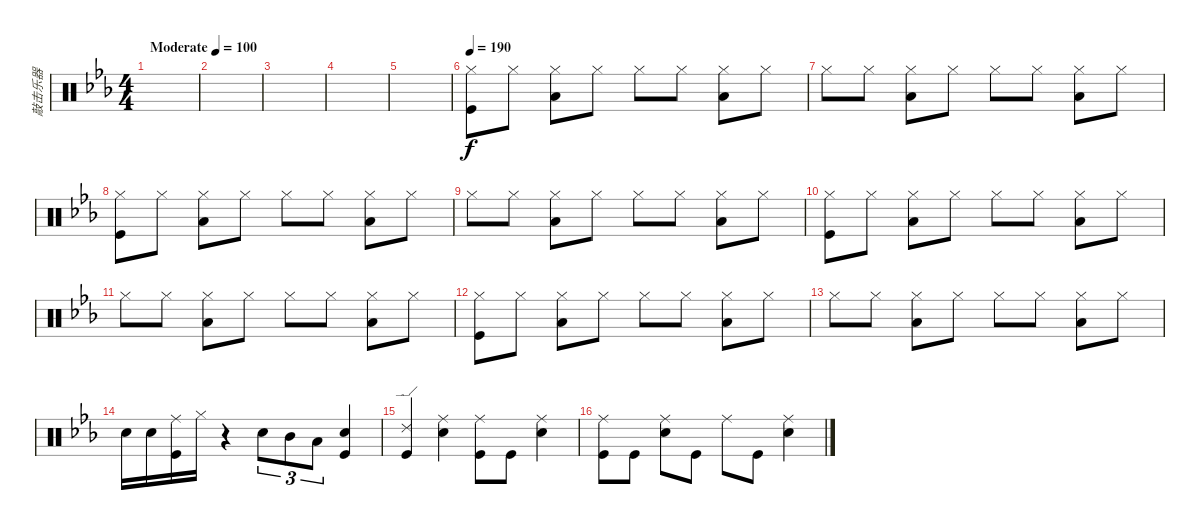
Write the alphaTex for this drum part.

\track ("敲击乐器" "敲击乐器") {instrument percussion}
\staff {score}
\articulation defaults
\ts (4 4)
\tempo (100 "Moderate")
\clef neutral
\ks eb
|
|
|
|
|
\tempo 190
("Hi-Hat (closed)" "Kick (hit)").8 "Hi-Hat (closed)".8 ("Hi-Hat (closed)" "Low Tom (hit)").8 "Hi-Hat (closed)".8 "Hi-Hat (closed)".8 "Hi-Hat (closed)".8 ("Hi-Hat (closed)" "Low Tom (hit)").8 "Hi-Hat (closed)".8 |
"Hi-Hat (closed)".8 "Hi-Hat (closed)".8 ("Hi-Hat (closed)" "Low Tom (hit)").8 "Hi-Hat (closed)".8 "Hi-Hat (closed)".8 "Hi-Hat (closed)".8 ("Hi-Hat (closed)" "Low Tom (hit)").8 "Hi-Hat (closed)".8 |
("Hi-Hat (closed)" "Kick (hit)").8 "Hi-Hat (closed)".8 ("Hi-Hat (closed)" "Low Tom (hit)").8 "Hi-Hat (closed)".8 "Hi-Hat (closed)".8 "Hi-Hat (closed)".8 ("Hi-Hat (closed)" "Low Tom (hit)").8 "Hi-Hat (closed)".8 |
"Hi-Hat (closed)".8 "Hi-Hat (closed)".8 ("Hi-Hat (closed)" "Low Tom (hit)").8 "Hi-Hat (closed)".8 "Hi-Hat (closed)".8 "Hi-Hat (closed)".8 ("Hi-Hat (closed)" "Low Tom (hit)").8 "Hi-Hat (closed)".8 |
("Hi-Hat (closed)" "Kick (hit)").8 "Hi-Hat (closed)".8 ("Hi-Hat (closed)" "Low Tom (hit)").8 "Hi-Hat (closed)".8 "Hi-Hat (closed)".8 "Hi-Hat (closed)".8 ("Hi-Hat (closed)" "Low Tom (hit)").8 "Hi-Hat (closed)".8 |
"Hi-Hat (closed)".8 "Hi-Hat (closed)".8 ("Hi-Hat (closed)" "Low Tom (hit)").8 "Hi-Hat (closed)".8 "Hi-Hat (closed)".8 "Hi-Hat (closed)".8 ("Hi-Hat (closed)" "Low Tom (hit)").8 "Hi-Hat (closed)".8 |
("Hi-Hat (closed)" "Kick (hit)").8 "Hi-Hat (closed)".8 ("Hi-Hat (closed)" "Low Tom (hit)").8 "Hi-Hat (closed)".8 "Hi-Hat (closed)".8 "Hi-Hat (closed)".8 ("Hi-Hat (closed)" "Low Tom (hit)").8 "Hi-Hat (closed)".8 |
"Hi-Hat (closed)".8 "Hi-Hat (closed)".8 ("Hi-Hat (closed)" "Low Tom (hit)").8 "Hi-Hat (closed)".8 "Hi-Hat (closed)".8 "Hi-Hat (closed)".8 ("Hi-Hat (closed)" "Low Tom (hit)").8 "Hi-Hat (closed)".8 |
"Snare (hit) 2".16 "Snare (hit) 2".16 ("Ride (middle)" "Kick (hit)").16 "Hi-Hat (closed)".16 r.4 "Snare (hit) 2".8{tu (3 2)} "Mid Tom (hit)".8{tu (3 2)} "Low Tom (hit)".8{tu (3 2)} ("Snare (hit) 2" "Kick (hit)").4 |
("Ride (edge) 2" "Kick (hit)").4 ("Ride (middle)" "Snare (hit) 2").4 ("Ride (middle)" "Kick (hit)").8 "Kick (hit)".8 ("Ride (middle)" "Snare (hit) 2").4 |
("Ride (middle)" "Kick (hit)").8 "Kick (hit)".8 ("Ride (middle)" "Snare (hit) 2").8 "Kick (hit)".8 "Ride (middle)".8 "Kick (hit)".8 ("Ride (middle)" "Snare (hit) 2").4
